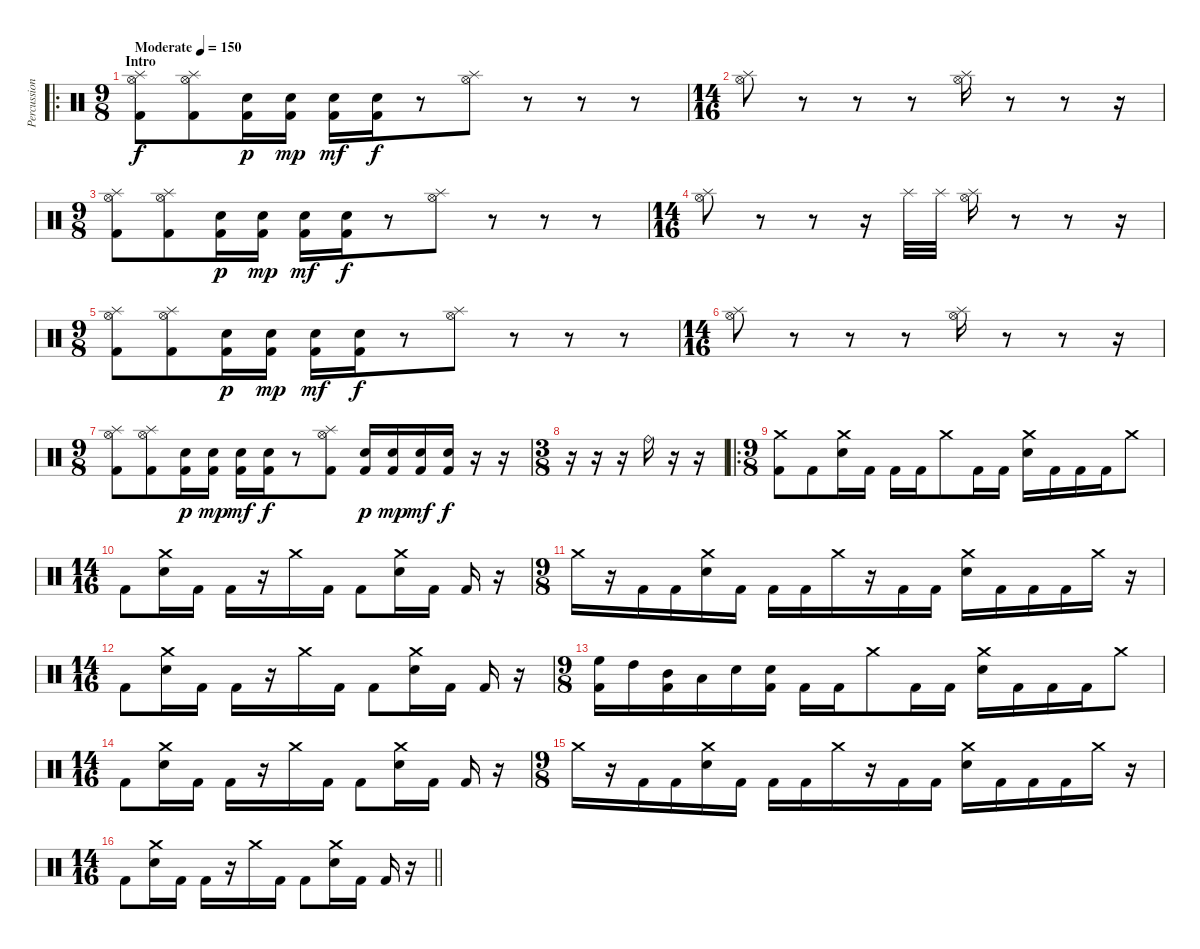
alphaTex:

\track ("Percussions" "Percussion") {instrument percussion}
\staff {score}
\articulation defaults
\ro
\ts (9 8)
\section ("" "Intro")
\tempo (150 "Moderate")
\clef neutral
\ks c
("Hi-Hat (open)" "Splash (hit)" "Kick (hit) 2").8{dy f} ("Hi-Hat (open)" "Splash (hit)" "Kick (hit) 2").8 ("Electric Snare (hit)" "Kick (hit) 2").16{dy p} ("Electric Snare (hit)" "Kick (hit) 2").16{dy mp} ("Electric Snare (hit)" "Kick (hit) 2").16{dy mf} ("Electric Snare (hit)" "Kick (hit) 2").16{dy f} r.8 ("Hi-Hat (open)" "Splash (hit)").8 r.8 r.8 r.8 |
\ts (14 16)
("Hi-Hat (open)" "Splash (hit)").8 r.8 r.8 r.8 ("Hi-Hat (open)" "Splash (hit)").16 r.8 r.8 r.16 |
\ts (9 8)
("Hi-Hat (open)" "Splash (hit)" "Kick (hit) 2").8 ("Hi-Hat (open)" "Splash (hit)" "Kick (hit) 2").8 ("Electric Snare (hit)" "Kick (hit) 2").16{dy p} ("Electric Snare (hit)" "Kick (hit) 2").16{dy mp} ("Electric Snare (hit)" "Kick (hit) 2").16{dy mf} ("Electric Snare (hit)" "Kick (hit) 2").16{dy f} r.8 ("Hi-Hat (open)" "Splash (hit)").8 r.8 r.8 r.8 |
\ts (14 16)
("Hi-Hat (open)" "Splash (hit)").8 r.8 r.8 r.16 "Splash (hit)".32 "Splash (hit)".32 ("Hi-Hat (open)" "Splash (hit)").16 r.8 r.8 r.16 |
\ts (9 8)
("Hi-Hat (open)" "Splash (hit)" "Kick (hit) 2").8 ("Hi-Hat (open)" "Splash (hit)" "Kick (hit) 2").8 ("Electric Snare (hit)" "Kick (hit) 2").16{dy p} ("Electric Snare (hit)" "Kick (hit) 2").16{dy mp} ("Electric Snare (hit)" "Kick (hit) 2").16{dy mf} ("Electric Snare (hit)" "Kick (hit) 2").16{dy f} r.8 ("Hi-Hat (open)" "Splash (hit)").8 r.8 r.8 r.8 |
\ts (14 16)
("Hi-Hat (open)" "Splash (hit)").8 r.8 r.8 r.8 ("Hi-Hat (open)" "Splash (hit)").16 r.8 r.8 r.16 |
\ts (9 8)
("Hi-Hat (open)" "Splash (hit)" "Kick (hit) 2").8 ("Hi-Hat (open)" "Splash (hit)" "Kick (hit) 2").8 ("Electric Snare (hit)" "Kick (hit) 2").16{dy p} ("Electric Snare (hit)" "Kick (hit) 2").16{dy mp} ("Electric Snare (hit)" "Kick (hit) 2").16{dy mf} ("Electric Snare (hit)" "Kick (hit) 2").16{dy f} r.8 ("Hi-Hat (open)" "Splash (hit)" "Kick (hit) 2").8 ("Electric Snare (hit)" "Kick (hit) 2").16{dy p} ("Electric Snare (hit)" "Kick (hit) 2").16{dy mp} ("Electric Snare (hit)" "Kick (hit) 2").16{dy mf} ("Electric Snare (hit)" "Kick (hit) 2").16{dy f} r.16 r.16 |
\ts (3 8)
r.16 r.16 r.16 "Ride (bell)".16 r.16 r.16 |
\ro
\ts (9 8)
("Crash medium (hit)" "Kick (hit) 2").8 "Kick (hit) 2".8 ("Crash medium (hit)" "Electric Snare (hit)").16 "Kick (hit) 2".16 "Kick (hit) 2".16 "Kick (hit) 2".16 "Crash medium (hit)".8 "Kick (hit) 2".16 "Kick (hit) 2".16 ("Crash medium (hit)" "Electric Snare (hit)").16 "Kick (hit) 2".16 "Kick (hit) 2".16 "Kick (hit) 2".16 "Crash medium (hit)".8 |
\ts (14 16)
"Kick (hit) 2".8 ("Crash medium (hit)" "Electric Snare (hit)").16 "Kick (hit) 2".16 "Kick (hit) 2".16 r.16 "Crash medium (hit)".16 "Kick (hit) 2".16 "Kick (hit) 2".8 ("Crash medium (hit)" "Electric Snare (hit)").16 "Kick (hit) 2".16 "Kick (hit) 2".16 r.16 |
\ts (9 8)
"Crash medium (hit)".16 r.16 "Kick (hit) 2".16 "Kick (hit) 2".16 ("Crash medium (hit)" "Electric Snare (hit)").16 "Kick (hit) 2".16 "Kick (hit) 2".16 "Kick (hit) 2".16 "Crash medium (hit)".16 r.16 "Kick (hit) 2".16 "Kick (hit) 2".16 ("Crash medium (hit)" "Electric Snare (hit)").16 "Kick (hit) 2".16 "Kick (hit) 2".16 "Kick (hit) 2".16 "Crash medium (hit)".16 r.16 |
\ts (14 16)
"Kick (hit) 2".8 ("Crash medium (hit)" "Electric Snare (hit)").16 "Kick (hit) 2".16 "Kick (hit) 2".16 r.16 "Crash medium (hit)".16 "Kick (hit) 2".16 "Kick (hit) 2".8 ("Crash medium (hit)" "Electric Snare (hit)").16 "Kick (hit) 2".16 "Kick (hit) 2".16 r.16 |
\ts (9 8)
("High Floor Tom (hit)" "Kick (hit) 2").16 "High Tom (hit)".16 ("Mid Tom (hit)" "Kick (hit) 2").16 "Low Tom (hit)".16 "Electric Snare (hit)".16 ("Electric Snare (hit)" "Kick (hit) 2").16 "Kick (hit) 2".16 "Kick (hit) 2".16 "Crash medium (hit)".8 "Kick (hit) 2".16 "Kick (hit) 2".16 ("Crash medium (hit)" "Electric Snare (hit)").16 "Kick (hit) 2".16 "Kick (hit) 2".16 "Kick (hit) 2".16 "Crash medium (hit)".8 |
\ts (14 16)
"Kick (hit) 2".8 ("Crash medium (hit)" "Electric Snare (hit)").16 "Kick (hit) 2".16 "Kick (hit) 2".16 r.16 "Crash medium (hit)".16 "Kick (hit) 2".16 "Kick (hit) 2".8 ("Crash medium (hit)" "Electric Snare (hit)").16 "Kick (hit) 2".16 "Kick (hit) 2".16 r.16 |
\ts (9 8)
"Crash medium (hit)".16 r.16 "Kick (hit) 2".16 "Kick (hit) 2".16 ("Crash medium (hit)" "Electric Snare (hit)").16 "Kick (hit) 2".16 "Kick (hit) 2".16 "Kick (hit) 2".16 "Crash medium (hit)".16 r.16 "Kick (hit) 2".16 "Kick (hit) 2".16 ("Crash medium (hit)" "Electric Snare (hit)").16 "Kick (hit) 2".16 "Kick (hit) 2".16 "Kick (hit) 2".16 "Crash medium (hit)".16 r.16 |
\ts (14 16)
\barLineRight lightlight "Kick (hit) 2".8
("Crash medium (hit)" "Electric Snare (hit)").16 "Kick (hit) 2".16 "Kick (hit) 2".16 r.16 "Crash medium (hit)".16 "Kick (hit) 2".16 "Kick (hit) 2".8 ("Crash medium (hit)" "Electric Snare (hit)").16 "Kick (hit) 2".16 "Kick (hit) 2".16 r.16
